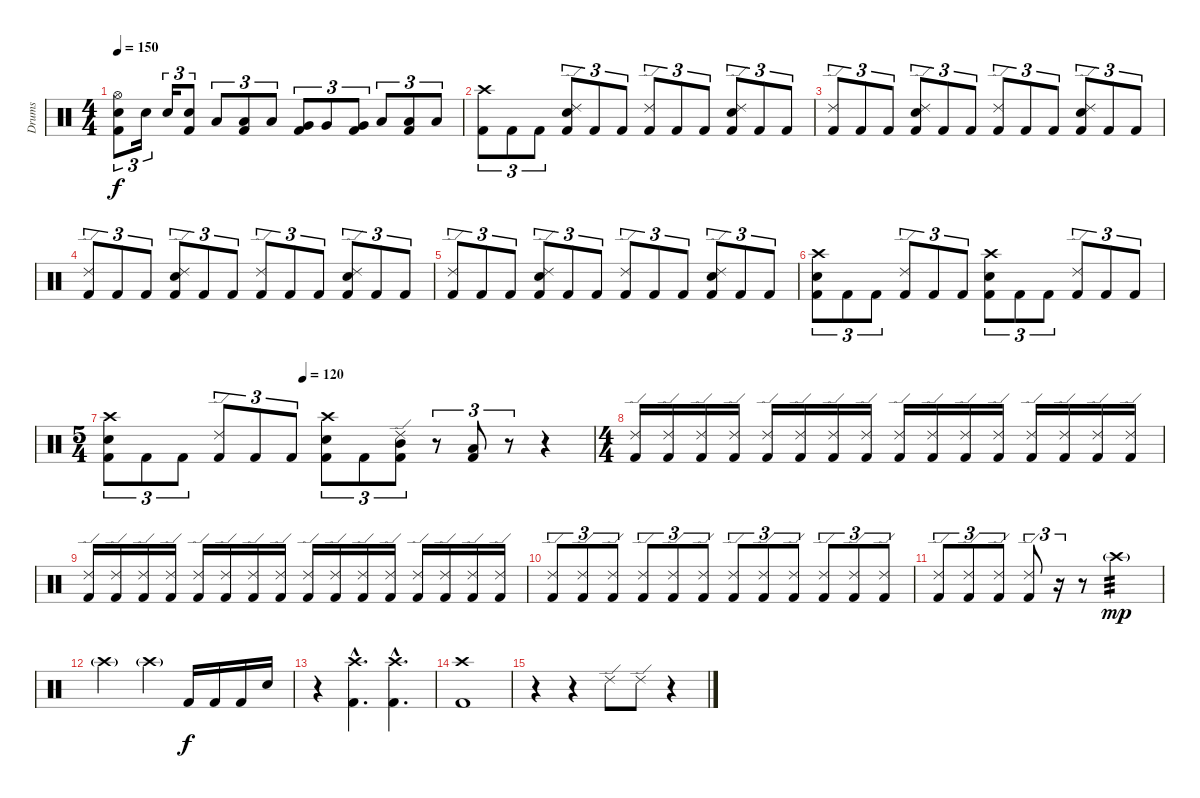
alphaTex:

\track ("Drums" "Drums") {instrument percussion}
\staff {score}
\articulation defaults
\ts (4 4)
\tempo 150
\clef neutral
\ks c
("Kick (hit) 2" "Electric Snare (hit)" "Hi-Hat (open)").8{tu (3 2) dy f} "Electric Snare (hit)".16{tu (3 2)} "Electric Snare (hit)".16{tu (3 2)} ("Kick (hit) 2" "Electric Snare (hit)").8{tu (3 2)} "Low Tom (hit)".8{tu (3 2)} ("Kick (hit) 2" "Low Tom (hit)").8{tu (3 2)} "Low Tom (hit)".8{tu (3 2)} ("Kick (hit) 2" "Very Low Tom (hit)").8{tu (3 2)} "Very Low Tom (hit)".8{tu (3 2)} ("Kick (hit) 2" "Very Low Tom (hit)").8{tu (3 2)} "Low Floor Tom (hit)".8{tu (3 2)} ("Kick (hit) 2" "Low Floor Tom (hit)").8{tu (3 2)} "Low Floor Tom (hit)".8{tu (3 2)} |
("Kick (hit) 2" "Crash high (hit)").8{tu (3 2)} "Kick (hit) 2".8{tu (3 2)} "Kick (hit) 2".8{tu (3 2)} ("Kick (hit) 2" "Electric Snare (hit)" "Ride (edge) 2").8{tu (3 2)} "Kick (hit) 2".8{tu (3 2)} "Kick (hit) 2".8{tu (3 2)} ("Kick (hit) 2" "Ride (edge) 2").8{tu (3 2)} "Kick (hit) 2".8{tu (3 2)} "Kick (hit) 2".8{tu (3 2)} ("Kick (hit) 2" "Electric Snare (hit)" "Ride (edge) 2").8{tu (3 2)} "Kick (hit) 2".8{tu (3 2)} "Kick (hit) 2".8{tu (3 2)} |
("Kick (hit) 2" "Ride (edge) 2").8{tu (3 2)} "Kick (hit) 2".8{tu (3 2)} "Kick (hit) 2".8{tu (3 2)} ("Kick (hit) 2" "Electric Snare (hit)" "Ride (edge) 2").8{tu (3 2)} "Kick (hit) 2".8{tu (3 2)} "Kick (hit) 2".8{tu (3 2)} ("Kick (hit) 2" "Ride (edge) 2").8{tu (3 2)} "Kick (hit) 2".8{tu (3 2)} "Kick (hit) 2".8{tu (3 2)} ("Kick (hit) 2" "Electric Snare (hit)" "Ride (edge) 2").8{tu (3 2)} "Kick (hit) 2".8{tu (3 2)} "Kick (hit) 2".8{tu (3 2)} |
("Kick (hit) 2" "Ride (edge) 2").8{tu (3 2)} "Kick (hit) 2".8{tu (3 2)} "Kick (hit) 2".8{tu (3 2)} ("Kick (hit) 2" "Electric Snare (hit)" "Ride (edge) 2").8{tu (3 2)} "Kick (hit) 2".8{tu (3 2)} "Kick (hit) 2".8{tu (3 2)} ("Kick (hit) 2" "Ride (edge) 2").8{tu (3 2)} "Kick (hit) 2".8{tu (3 2)} "Kick (hit) 2".8{tu (3 2)} ("Kick (hit) 2" "Electric Snare (hit)" "Ride (edge) 2").8{tu (3 2)} "Kick (hit) 2".8{tu (3 2)} "Kick (hit) 2".8{tu (3 2)} |
("Kick (hit) 2" "Ride (edge) 2").8{tu (3 2)} "Kick (hit) 2".8{tu (3 2)} "Kick (hit) 2".8{tu (3 2)} ("Kick (hit) 2" "Electric Snare (hit)" "Ride (edge) 2").8{tu (3 2)} "Kick (hit) 2".8{tu (3 2)} "Kick (hit) 2".8{tu (3 2)} ("Kick (hit) 2" "Ride (edge) 2").8{tu (3 2)} "Kick (hit) 2".8{tu (3 2)} "Kick (hit) 2".8{tu (3 2)} ("Kick (hit) 2" "Electric Snare (hit)" "Ride (edge) 2").8{tu (3 2)} "Kick (hit) 2".8{tu (3 2)} "Kick (hit) 2".8{tu (3 2)} |
("Kick (hit) 2" "Electric Snare (hit)" "Crash high (hit)").8{tu (3 2)} "Kick (hit) 2".8{tu (3 2)} "Kick (hit) 2".8{tu (3 2)} ("Kick (hit) 2" "Ride (edge) 2").8{tu (3 2)} "Kick (hit) 2".8{tu (3 2)} "Kick (hit) 2".8{tu (3 2)} ("Kick (hit) 2" "Electric Snare (hit)" "Crash high (hit)").8{tu (3 2)} "Kick (hit) 2".8{tu (3 2)} "Kick (hit) 2".8{tu (3 2)} ("Kick (hit) 2" "Ride (edge) 2").8{tu (3 2)} "Kick (hit) 2".8{tu (3 2)} "Kick (hit) 2".8{tu (3 2)} |
\ts (5 4)
\tempo (120 0.4)
("Kick (hit) 2" "Electric Snare (hit)" "Crash high (hit)").8{tu (3 2)} "Kick (hit) 2".8{tu (3 2)} "Kick (hit) 2".8{tu (3 2)} ("Kick (hit) 2" "Ride (edge) 2").8{tu (3 2)} "Kick (hit) 2".8{tu (3 2)} "Kick (hit) 2".8{tu (3 2)} ("Kick (hit) 2" "Electric Snare (hit)" "Crash high (hit)").8{tu (3 2)} "Kick (hit) 2".8{tu (3 2)} ("Kick (hit) 2" "Mid Tom (hit)" "Ride (edge) 2").8{tu (3 2)} r.8{tu (3 2)} ("Kick (hit) 2" "Low Tom (hit)").8{tu (3 2)} r.8{tu (3 2)} r.4 |
\ts (4 4)
("Kick (hit) 2" "Ride (edge) 2").16 ("Kick (hit) 2" "Ride (edge) 2").16 ("Kick (hit) 2" "Ride (edge) 2").16 ("Kick (hit) 2" "Ride (edge) 2").16 ("Kick (hit) 2" "Ride (edge) 2").16 ("Kick (hit) 2" "Ride (edge) 2").16 ("Kick (hit) 2" "Ride (edge) 2").16 ("Kick (hit) 2" "Ride (edge) 2").16 ("Kick (hit) 2" "Ride (edge) 2").16 ("Kick (hit) 2" "Ride (edge) 2").16 ("Kick (hit) 2" "Ride (edge) 2").16 ("Kick (hit) 2" "Ride (edge) 2").16 ("Kick (hit) 2" "Ride (edge) 2").16 ("Kick (hit) 2" "Ride (edge) 2").16 ("Kick (hit) 2" "Ride (edge) 2").16 ("Kick (hit) 2" "Ride (edge) 2").16 |
("Kick (hit) 2" "Ride (edge) 2").16 ("Kick (hit) 2" "Ride (edge) 2").16 ("Kick (hit) 2" "Ride (edge) 2").16 ("Kick (hit) 2" "Ride (edge) 2").16 ("Kick (hit) 2" "Ride (edge) 2").16 ("Kick (hit) 2" "Ride (edge) 2").16 ("Kick (hit) 2" "Ride (edge) 2").16 ("Kick (hit) 2" "Ride (edge) 2").16 ("Kick (hit) 2" "Ride (edge) 2").16 ("Kick (hit) 2" "Ride (edge) 2").16 ("Kick (hit) 2" "Ride (edge) 2").16 ("Kick (hit) 2" "Ride (edge) 2").16 ("Kick (hit) 2" "Ride (edge) 2").16 ("Kick (hit) 2" "Ride (edge) 2").16 ("Kick (hit) 2" "Ride (edge) 2").16 ("Kick (hit) 2" "Ride (edge) 2").16 |
("Kick (hit) 2" "Ride (edge) 2").8{tu (3 2)} ("Kick (hit) 2" "Ride (edge) 2").8{tu (3 2)} ("Kick (hit) 2" "Ride (edge) 2").8{tu (3 2)} ("Kick (hit) 2" "Ride (edge) 2").8{tu (3 2)} ("Kick (hit) 2" "Ride (edge) 2").8{tu (3 2)} ("Kick (hit) 2" "Ride (edge) 2").8{tu (3 2)} ("Kick (hit) 2" "Ride (edge) 2").8{tu (3 2)} ("Kick (hit) 2" "Ride (edge) 2").8{tu (3 2)} ("Kick (hit) 2" "Ride (edge) 2").8{tu (3 2)} ("Kick (hit) 2" "Ride (edge) 2").8{tu (3 2)} ("Kick (hit) 2" "Ride (edge) 2").8{tu (3 2)} ("Kick (hit) 2" "Ride (edge) 2").8{tu (3 2)} |
("Kick (hit) 2" "Ride (edge) 2").8{tu (3 2)} ("Kick (hit) 2" "Ride (edge) 2").8{tu (3 2)} ("Kick (hit) 2" "Ride (edge) 2").8{tu (3 2)} ("Kick (hit) 2" "Ride (edge) 2").8{tu (3 2)} r.16{tu (3 2)} r.8 "Crash high (hit)"{g}.2{tp 3 dy mp} |
"Crash high (hit)"{g}.2 "Crash high (hit)"{g}.4 "Kick (hit) 2".16{dy f} "Kick (hit) 2".16 "Kick (hit) 2".16 "Electric Snare (hit)".16 |
r.4 ("Kick (hit) 2"{hac} "Crash high (hit)"{hac}).4{d} ("Kick (hit) 2"{hac} "Crash high (hit)"{hac}).4{d} |
("Kick (hit) 2" "Crash high (hit)").1 |
r.4 r.4 "Ride (edge) 2".8 "Ride (edge) 2".8 r.4
